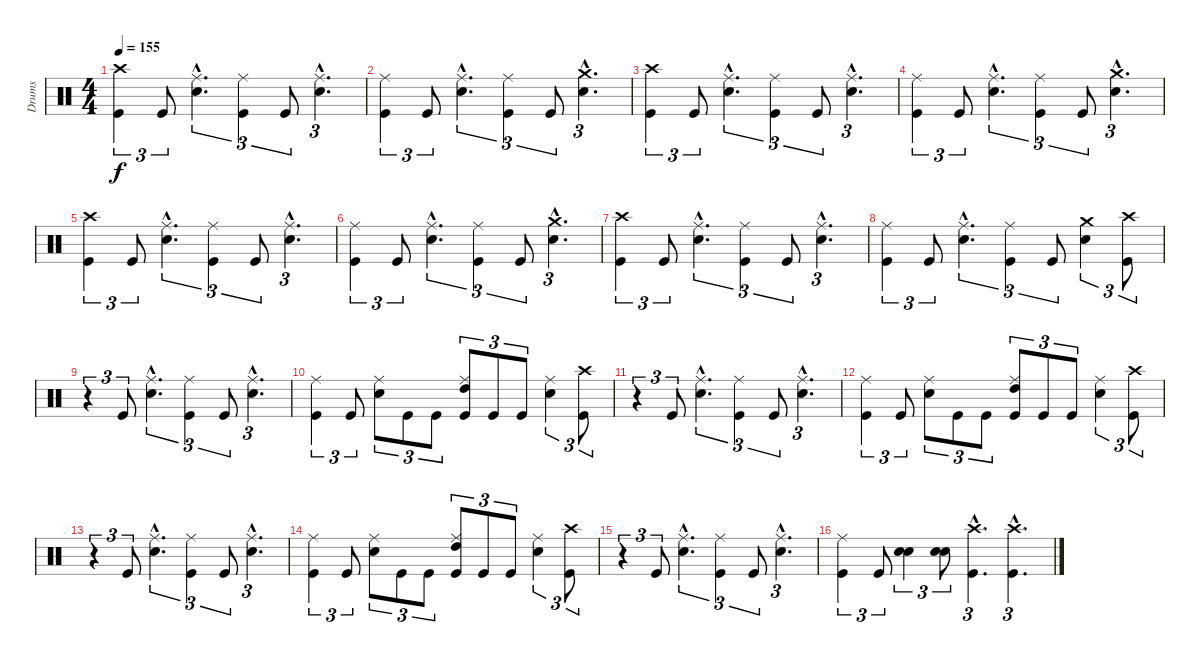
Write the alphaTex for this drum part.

\track ("Drums" "Drums") {instrument percussion}
\staff {score}
\articulation defaults
\ts (4 4)
\tempo 155
\clef neutral
\ks c
("Crash high (hit)" "Kick (hit)").4{tu (3 2) dy f} "Kick (hit)".8{tu (3 2)} ("Ride (middle)"{hac} "Snare (hit) 2"{hac}).4{d tu (3 2)} ("Ride (middle)" "Kick (hit)").4{tu (3 2)} "Kick (hit)".8{tu (3 2)} ("Ride (middle)"{hac} "Snare (hit) 2"{hac}).4{d tu (3 2)} |
("Ride (middle)" "Kick (hit)").4{tu (3 2)} "Kick (hit)".8{tu (3 2)} ("Ride (middle)"{hac} "Snare (hit) 2"{hac}).4{d tu (3 2)} ("Ride (middle)" "Kick (hit)").4{tu (3 2)} "Kick (hit)".8{tu (3 2)} ("Crash medium (hit)"{hac} "Snare (hit) 2"{hac}).4{d tu (3 2)} |
("Crash high (hit)" "Kick (hit)").4{tu (3 2)} "Kick (hit)".8{tu (3 2)} ("Ride (middle)"{hac} "Snare (hit) 2"{hac}).4{d tu (3 2)} ("Ride (middle)" "Kick (hit)").4{tu (3 2)} "Kick (hit)".8{tu (3 2)} ("Ride (middle)"{hac} "Snare (hit) 2"{hac}).4{d tu (3 2)} |
("Ride (middle)" "Kick (hit)").4{tu (3 2)} "Kick (hit)".8{tu (3 2)} ("Ride (middle)"{hac} "Snare (hit) 2"{hac}).4{d tu (3 2)} ("Ride (middle)" "Kick (hit)").4{tu (3 2)} "Kick (hit)".8{tu (3 2)} ("Crash medium (hit)"{hac} "Snare (hit) 2"{hac}).4{d tu (3 2)} |
("Crash high (hit)" "Kick (hit)").4{tu (3 2)} "Kick (hit)".8{tu (3 2)} ("Ride (middle)"{hac} "Snare (hit) 2"{hac}).4{d tu (3 2)} ("Ride (middle)" "Kick (hit)").4{tu (3 2)} "Kick (hit)".8{tu (3 2)} ("Ride (middle)"{hac} "Snare (hit) 2"{hac}).4{d tu (3 2)} |
("Ride (middle)" "Kick (hit)").4{tu (3 2)} "Kick (hit)".8{tu (3 2)} ("Ride (middle)"{hac} "Snare (hit) 2"{hac}).4{d tu (3 2)} ("Ride (middle)" "Kick (hit)").4{tu (3 2)} "Kick (hit)".8{tu (3 2)} ("Crash medium (hit)"{hac} "Snare (hit) 2"{hac}).4{d tu (3 2)} |
("Crash high (hit)" "Kick (hit)").4{tu (3 2)} "Kick (hit)".8{tu (3 2)} ("Ride (middle)"{hac} "Snare (hit) 2"{hac}).4{d tu (3 2)} ("Ride (middle)" "Kick (hit)").4{tu (3 2)} "Kick (hit)".8{tu (3 2)} ("Ride (middle)"{hac} "Snare (hit) 2"{hac}).4{d tu (3 2)} |
("Ride (middle)" "Kick (hit)").4{tu (3 2)} "Kick (hit)".8{tu (3 2)} ("Ride (middle)"{hac} "Snare (hit) 2"{hac}).4{d tu (3 2)} ("Ride (middle)" "Kick (hit)").4{tu (3 2)} "Kick (hit)".8{tu (3 2)} ("Crash medium (hit)" "Snare (hit) 2").4{tu (3 2)} ("Crash high (hit)" "Kick (hit)").8{tu (3 2)} |
r.4{tu (3 2)} "Kick (hit)".8{tu (3 2)} ("Ride (middle)"{hac} "Snare (hit) 2"{hac}).4{d tu (3 2)} ("Ride (middle)" "Kick (hit)").4{tu (3 2)} "Kick (hit)".8{tu (3 2)} ("Ride (middle)"{hac} "Snare (hit) 2"{hac}).4{d tu (3 2)} |
("Ride (middle)" "Kick (hit)").4{tu (3 2)} "Kick (hit)".8{tu (3 2)} ("Ride (middle)" "Snare (hit) 2").8{tu (3 2)} "Kick (hit)".8{tu (3 2)} "Kick (hit)".8{tu (3 2)} ("Ride (middle)" "Kick (hit)" "High Tom (hit)").8{tu (3 2)} "Kick (hit)".8{tu (3 2)} "Kick (hit)".8{tu (3 2)} ("Ride (middle)" "Snare (hit) 2").4{tu (3 2)} ("Crash high (hit)" "Kick (hit)").8{tu (3 2)} |
r.4{tu (3 2)} "Kick (hit)".8{tu (3 2)} ("Ride (middle)"{hac} "Snare (hit) 2"{hac}).4{d tu (3 2)} ("Ride (middle)" "Kick (hit)").4{tu (3 2)} "Kick (hit)".8{tu (3 2)} ("Ride (middle)"{hac} "Snare (hit) 2"{hac}).4{d tu (3 2)} |
("Ride (middle)" "Kick (hit)").4{tu (3 2)} "Kick (hit)".8{tu (3 2)} ("Ride (middle)" "Snare (hit) 2").8{tu (3 2)} "Kick (hit)".8{tu (3 2)} "Kick (hit)".8{tu (3 2)} ("Ride (middle)" "Kick (hit)" "High Tom (hit)").8{tu (3 2)} "Kick (hit)".8{tu (3 2)} "Kick (hit)".8{tu (3 2)} ("Ride (middle)" "Snare (hit) 2").4{tu (3 2)} ("Crash high (hit)" "Kick (hit)").8{tu (3 2)} |
r.4{tu (3 2)} "Kick (hit)".8{tu (3 2)} ("Ride (middle)"{hac} "Snare (hit) 2"{hac}).4{d tu (3 2)} ("Ride (middle)" "Kick (hit)").4{tu (3 2)} "Kick (hit)".8{tu (3 2)} ("Ride (middle)"{hac} "Snare (hit) 2"{hac}).4{d tu (3 2)} |
("Ride (middle)" "Kick (hit)").4{tu (3 2)} "Kick (hit)".8{tu (3 2)} ("Ride (middle)" "Snare (hit) 2").8{tu (3 2)} "Kick (hit)".8{tu (3 2)} "Kick (hit)".8{tu (3 2)} ("Ride (middle)" "Kick (hit)" "High Tom (hit)").8{tu (3 2)} "Kick (hit)".8{tu (3 2)} "Kick (hit)".8{tu (3 2)} ("Ride (middle)" "Snare (hit) 2").4{tu (3 2)} ("Crash high (hit)" "Kick (hit)").8{tu (3 2)} |
r.4{tu (3 2)} "Kick (hit)".8{tu (3 2)} ("Ride (middle)"{hac} "Snare (hit) 2"{hac}).4{d tu (3 2)} ("Ride (middle)" "Kick (hit)").4{tu (3 2)} "Kick (hit)".8{tu (3 2)} ("Ride (middle)"{hac} "Snare (hit) 2"{hac}).4{d tu (3 2)} |
("Ride (middle)" "Kick (hit)").4{tu (3 2)} "Kick (hit)".8{tu (3 2)} ("Snare (hit) 2" "Electric Snare (hit)").4{tu (3 2)} ("Snare (hit) 2" "Electric Snare (hit)").8{tu (3 2)} ("Crash high (hit)"{hac} "Kick (hit)"{hac}).4{d tu (3 2)} ("Crash high (hit)"{hac} "Kick (hit)"{hac}).4{d tu (3 2)}
